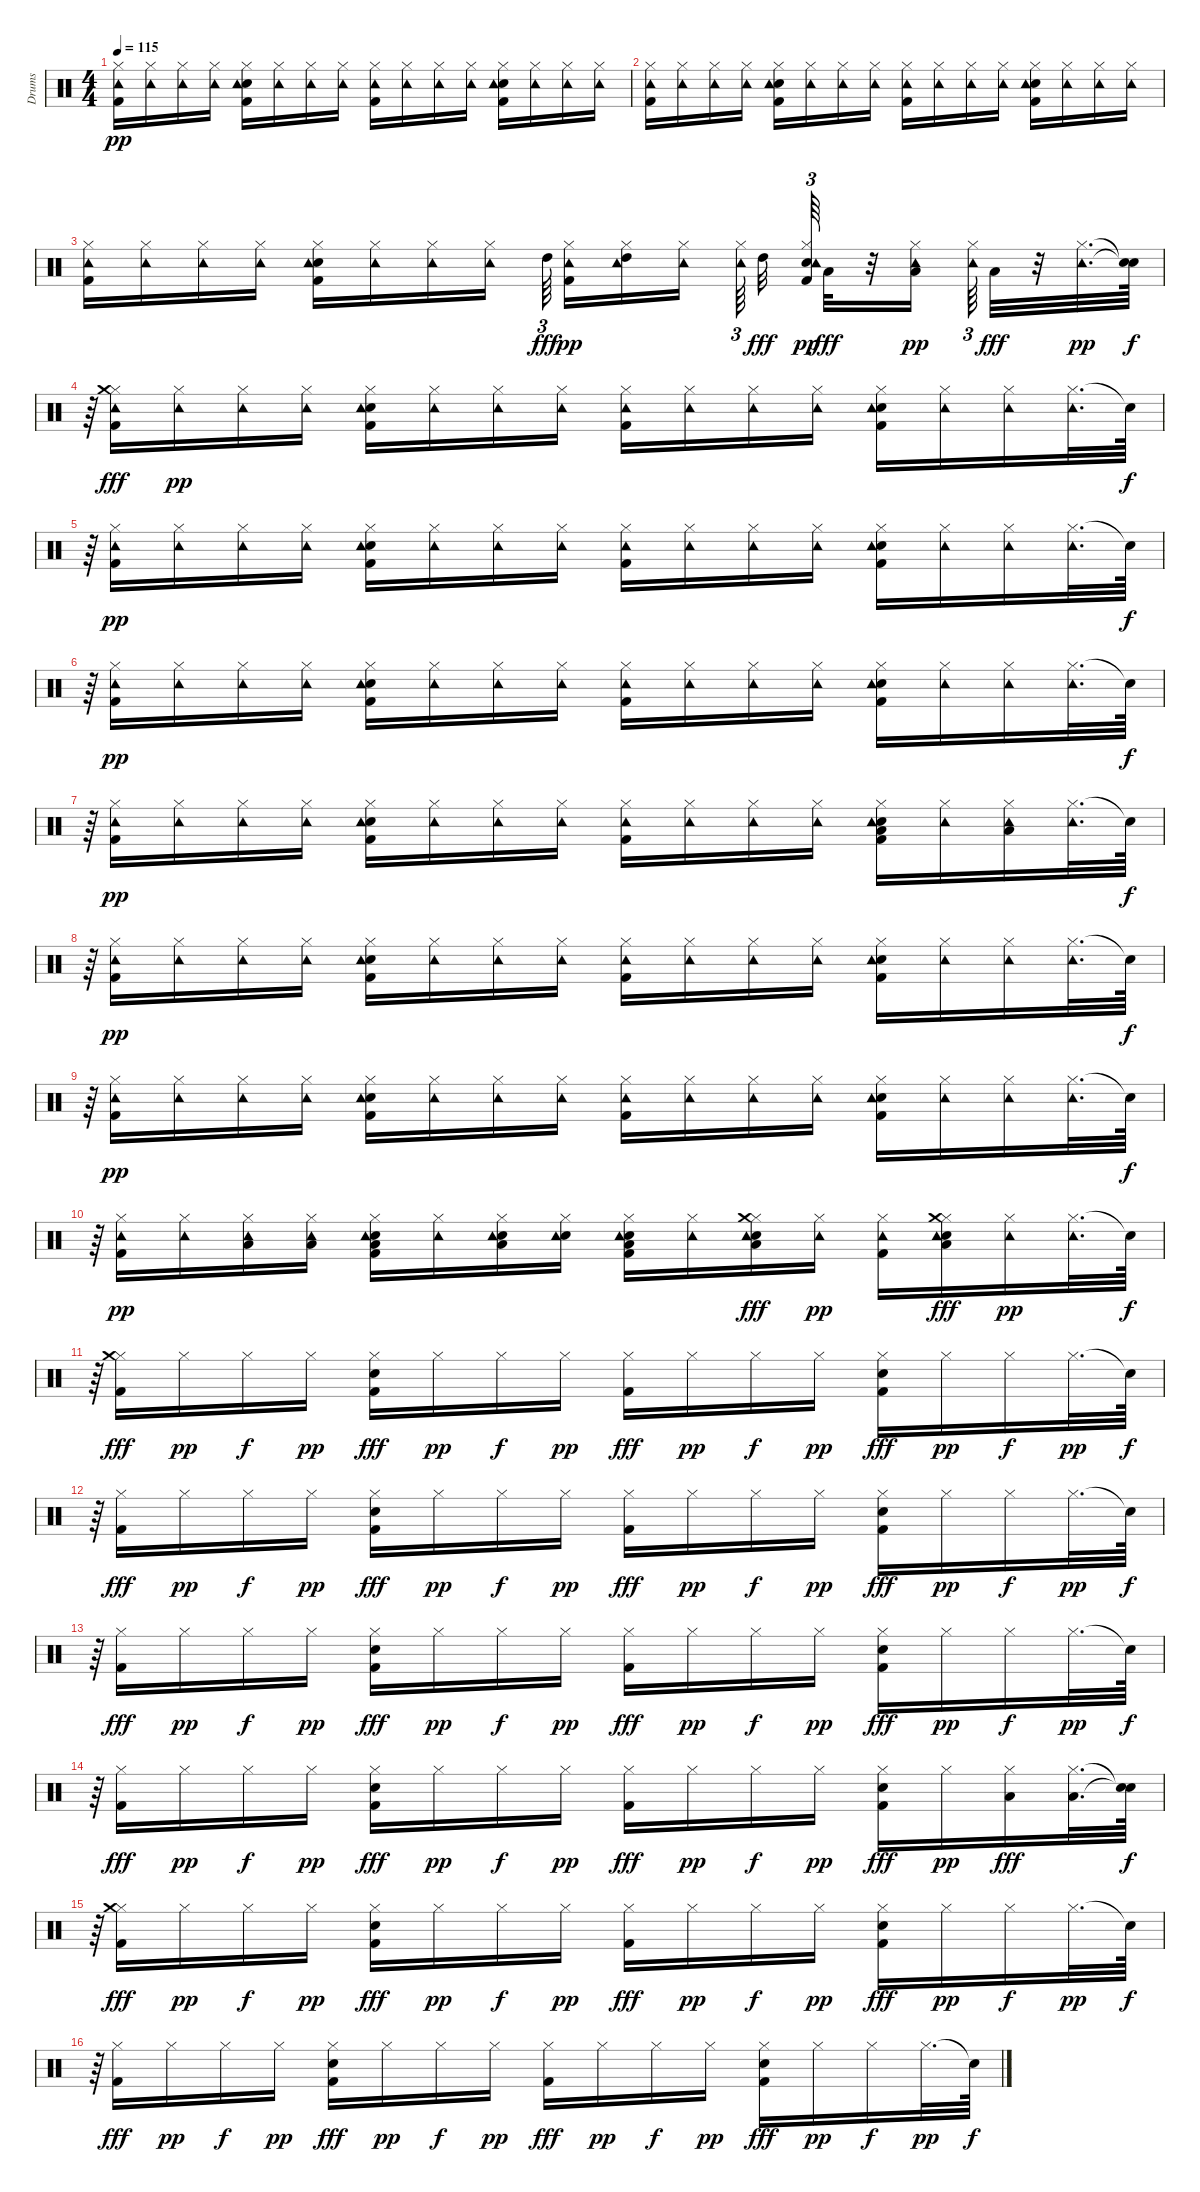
\track ("Drums" "Drums") {instrument percussion}
\staff {score}
\articulation defaults
\ts (4 4)
\tempo 115
\clef neutral
\ks c
("Kick (hit) 2" "Hi-Hat (closed)" "Tambourine (hit)").16{dy pp} ("Hi-Hat (closed)" "Tambourine (hit)").16 ("Hi-Hat (closed)" "Tambourine (hit)").16 ("Hi-Hat (closed)" "Tambourine (hit)").16 ("Kick (hit) 2" "Snare (hit) 2" "Hi-Hat (closed)" "Tambourine (hit)").16 ("Hi-Hat (closed)" "Tambourine (hit)").16 ("Hi-Hat (closed)" "Tambourine (hit)").16 ("Hi-Hat (closed)" "Tambourine (hit)").16 ("Kick (hit) 2" "Hi-Hat (closed)" "Tambourine (hit)").16 ("Hi-Hat (closed)" "Tambourine (hit)").16 ("Hi-Hat (closed)" "Tambourine (hit)").16 ("Hi-Hat (closed)" "Tambourine (hit)").16 ("Kick (hit) 2" "Snare (hit) 2" "Hi-Hat (closed)" "Tambourine (hit)").16 ("Hi-Hat (closed)" "Tambourine (hit)").16 ("Hi-Hat (closed)" "Tambourine (hit)").16 ("Hi-Hat (closed)" "Tambourine (hit)").16 |
("Kick (hit) 2" "Hi-Hat (closed)" "Tambourine (hit)").16 ("Hi-Hat (closed)" "Tambourine (hit)").16 ("Hi-Hat (closed)" "Tambourine (hit)").16 ("Hi-Hat (closed)" "Tambourine (hit)").16 ("Kick (hit) 2" "Snare (hit) 2" "Hi-Hat (closed)" "Tambourine (hit)").16 ("Hi-Hat (closed)" "Tambourine (hit)").16 ("Hi-Hat (closed)" "Tambourine (hit)").16 ("Hi-Hat (closed)" "Tambourine (hit)").16 ("Kick (hit) 2" "Hi-Hat (closed)" "Tambourine (hit)").16 ("Hi-Hat (closed)" "Tambourine (hit)").16 ("Hi-Hat (closed)" "Tambourine (hit)").16 ("Hi-Hat (closed)" "Tambourine (hit)").16 ("Kick (hit) 2" "Snare (hit) 2" "Hi-Hat (closed)" "Tambourine (hit)").16 ("Hi-Hat (closed)" "Tambourine (hit)").16 ("Hi-Hat (closed)" "Tambourine (hit)").16 ("Hi-Hat (closed)" "Tambourine (hit)").16 |
("Kick (hit) 2" "Hi-Hat (closed)" "Tambourine (hit)").16 ("Hi-Hat (closed)" "Tambourine (hit)").16 ("Hi-Hat (closed)" "Tambourine (hit)").16 ("Hi-Hat (closed)" "Tambourine (hit)").16 ("Kick (hit) 2" "Snare (hit) 2" "Hi-Hat (closed)" "Tambourine (hit)").16 ("Hi-Hat (closed)" "Tambourine (hit)").16 ("Hi-Hat (closed)" "Tambourine (hit)").16 ("Hi-Hat (closed)" "Tambourine (hit)").16 "High Tom (hit)".64{tu (3 2) dy fff beam splitsecondary} ("Kick (hit) 2" "Hi-Hat (closed)" "Tambourine (hit)").16{dy pp} ("Hi-Hat (closed)" "High Tom (hit)" "Tambourine (hit)").16 ("Hi-Hat (closed)" "Tambourine (hit)").16{beam splitsecondary} ("Hi-Hat (closed)" "Tambourine (hit)").64{tu (3 2) beam splitsecondary} "High Tom (hit)".32{dy fff} ("Kick (hit) 2" "Snare (hit) 2" "Hi-Hat (closed)" "Tambourine (hit)").64{tu (3 2) dy pp} "Low Tom (hit)".32{dy fff} r.32 ("Hi-Hat (closed)" "Low Tom (hit)" "Tambourine (hit)").16{dy pp beam splitsecondary} ("Hi-Hat (closed)" "Tambourine (hit)").64{tu (3 2)} "Low Floor Tom (hit)".32{dy fff} r.32 ("Hi-Hat (closed)" "Tambourine (hit)").32{d dy pp} ("Snare (hit)"{t} "Snare (hit)"{t}).64{dy f} |
r.64{tu (3 2)} ("Kick (hit) 2" "Hi-Hat (closed)" "Tambourine (hit)" "Crash medium (hit)").16{dy fff} ("Hi-Hat (closed)" "Tambourine (hit)").16{dy pp} ("Hi-Hat (closed)" "Tambourine (hit)").16 ("Hi-Hat (closed)" "Tambourine (hit)").16 ("Kick (hit) 2" "Snare (hit) 2" "Hi-Hat (closed)" "Tambourine (hit)").16 ("Hi-Hat (closed)" "Tambourine (hit)").16 ("Hi-Hat (closed)" "Tambourine (hit)").16 ("Hi-Hat (closed)" "Tambourine (hit)").16 ("Kick (hit) 2" "Hi-Hat (closed)" "Tambourine (hit)").16 ("Hi-Hat (closed)" "Tambourine (hit)").16 ("Hi-Hat (closed)" "Tambourine (hit)").16 ("Hi-Hat (closed)" "Tambourine (hit)").16 ("Kick (hit) 2" "Snare (hit) 2" "Hi-Hat (closed)" "Tambourine (hit)").16 ("Hi-Hat (closed)" "Tambourine (hit)").16 ("Hi-Hat (closed)" "Tambourine (hit)").16 ("Hi-Hat (closed)" "Tambourine (hit)").32{d} "Snare (hit)"{t}.64{dy f} |
r.64{tu (3 2)} ("Kick (hit) 2" "Hi-Hat (closed)" "Tambourine (hit)").16{dy pp} ("Hi-Hat (closed)" "Tambourine (hit)").16 ("Hi-Hat (closed)" "Tambourine (hit)").16 ("Hi-Hat (closed)" "Tambourine (hit)").16 ("Kick (hit) 2" "Snare (hit) 2" "Hi-Hat (closed)" "Tambourine (hit)").16 ("Hi-Hat (closed)" "Tambourine (hit)").16 ("Hi-Hat (closed)" "Tambourine (hit)").16 ("Hi-Hat (closed)" "Tambourine (hit)").16 ("Kick (hit) 2" "Hi-Hat (closed)" "Tambourine (hit)").16 ("Hi-Hat (closed)" "Tambourine (hit)").16 ("Hi-Hat (closed)" "Tambourine (hit)").16 ("Hi-Hat (closed)" "Tambourine (hit)").16 ("Kick (hit) 2" "Snare (hit) 2" "Hi-Hat (closed)" "Tambourine (hit)").16 ("Hi-Hat (closed)" "Tambourine (hit)").16 ("Hi-Hat (closed)" "Tambourine (hit)").16 ("Hi-Hat (closed)" "Tambourine (hit)").32{d} "Snare (hit)"{t}.64{dy f} |
r.64{tu (3 2)} ("Kick (hit) 2" "Hi-Hat (closed)" "Tambourine (hit)").16{dy pp} ("Hi-Hat (closed)" "Tambourine (hit)").16 ("Hi-Hat (closed)" "Tambourine (hit)").16 ("Hi-Hat (closed)" "Tambourine (hit)").16 ("Kick (hit) 2" "Snare (hit) 2" "Hi-Hat (closed)" "Tambourine (hit)").16 ("Hi-Hat (closed)" "Tambourine (hit)").16 ("Hi-Hat (closed)" "Tambourine (hit)").16 ("Hi-Hat (closed)" "Tambourine (hit)").16 ("Kick (hit) 2" "Hi-Hat (closed)" "Tambourine (hit)").16 ("Hi-Hat (closed)" "Tambourine (hit)").16 ("Hi-Hat (closed)" "Tambourine (hit)").16 ("Hi-Hat (closed)" "Tambourine (hit)").16 ("Kick (hit) 2" "Snare (hit) 2" "Hi-Hat (closed)" "Tambourine (hit)").16 ("Hi-Hat (closed)" "Tambourine (hit)").16 ("Hi-Hat (closed)" "Tambourine (hit)").16 ("Hi-Hat (closed)" "Tambourine (hit)").32{d} "Snare (hit)"{t}.64{dy f} |
r.64{tu (3 2)} ("Kick (hit) 2" "Hi-Hat (closed)" "Tambourine (hit)").16{dy pp} ("Hi-Hat (closed)" "Tambourine (hit)").16 ("Hi-Hat (closed)" "Tambourine (hit)").16 ("Hi-Hat (closed)" "Tambourine (hit)").16 ("Kick (hit) 2" "Snare (hit) 2" "Hi-Hat (closed)" "Tambourine (hit)").16 ("Hi-Hat (closed)" "Tambourine (hit)").16 ("Hi-Hat (closed)" "Tambourine (hit)").16 ("Hi-Hat (closed)" "Tambourine (hit)").16 ("Kick (hit) 2" "Hi-Hat (closed)" "Tambourine (hit)").16 ("Hi-Hat (closed)" "Tambourine (hit)").16 ("Hi-Hat (closed)" "Tambourine (hit)").16 ("Hi-Hat (closed)" "Tambourine (hit)").16 ("Kick (hit) 2" "Snare (hit) 2" "Hi-Hat (closed)" "Low Tom (hit)" "Tambourine (hit)").16 ("Hi-Hat (closed)" "Tambourine (hit)").16 ("Low Floor Tom (hit)" "Hi-Hat (closed)" "Tambourine (hit)").16 ("Hi-Hat (closed)" "Tambourine (hit)").32{d} "Snare (hit)"{t}.64{dy f} |
r.64{tu (3 2)} ("Kick (hit) 2" "Hi-Hat (closed)" "Tambourine (hit)").16{dy pp} ("Hi-Hat (closed)" "Tambourine (hit)").16 ("Hi-Hat (closed)" "Tambourine (hit)").16 ("Hi-Hat (closed)" "Tambourine (hit)").16 ("Kick (hit) 2" "Snare (hit) 2" "Hi-Hat (closed)" "Tambourine (hit)").16 ("Hi-Hat (closed)" "Tambourine (hit)").16 ("Hi-Hat (closed)" "Tambourine (hit)").16 ("Hi-Hat (closed)" "Tambourine (hit)").16 ("Kick (hit) 2" "Hi-Hat (closed)" "Tambourine (hit)").16 ("Hi-Hat (closed)" "Tambourine (hit)").16 ("Hi-Hat (closed)" "Tambourine (hit)").16 ("Hi-Hat (closed)" "Tambourine (hit)").16 ("Kick (hit) 2" "Snare (hit) 2" "Hi-Hat (closed)" "Tambourine (hit)").16 ("Hi-Hat (closed)" "Tambourine (hit)").16 ("Hi-Hat (closed)" "Tambourine (hit)").16 ("Hi-Hat (closed)" "Tambourine (hit)").32{d} "Snare (hit)"{t}.64{dy f} |
r.64{tu (3 2)} ("Kick (hit) 2" "Hi-Hat (closed)" "Tambourine (hit)").16{dy pp} ("Hi-Hat (closed)" "Tambourine (hit)").16 ("Hi-Hat (closed)" "Tambourine (hit)").16 ("Hi-Hat (closed)" "Tambourine (hit)").16 ("Kick (hit) 2" "Snare (hit) 2" "Hi-Hat (closed)" "Tambourine (hit)").16 ("Hi-Hat (closed)" "Tambourine (hit)").16 ("Hi-Hat (closed)" "Tambourine (hit)").16 ("Hi-Hat (closed)" "Tambourine (hit)").16 ("Kick (hit) 2" "Hi-Hat (closed)" "Tambourine (hit)").16 ("Hi-Hat (closed)" "Tambourine (hit)").16 ("Hi-Hat (closed)" "Tambourine (hit)").16 ("Hi-Hat (closed)" "Tambourine (hit)").16 ("Kick (hit) 2" "Snare (hit) 2" "Hi-Hat (closed)" "Tambourine (hit)").16 ("Hi-Hat (closed)" "Tambourine (hit)").16 ("Hi-Hat (closed)" "Tambourine (hit)").16 ("Hi-Hat (closed)" "Tambourine (hit)").32{d} "Snare (hit)"{t}.64{dy f} |
r.64{tu (3 2)} ("Kick (hit) 2" "Hi-Hat (closed)" "Tambourine (hit)").16{dy pp} ("Hi-Hat (closed)" "Tambourine (hit)").16 ("Hi-Hat (closed)" "Low Tom (hit)" "Tambourine (hit)").16 ("Hi-Hat (closed)" "Low Tom (hit)" "Tambourine (hit)").16 ("Kick (hit) 2" "Snare (hit) 2" "Hi-Hat (closed)" "Low Tom (hit)" "Tambourine (hit)").16 ("Hi-Hat (closed)" "Tambourine (hit)").16 ("Snare (hit) 2" "Hi-Hat (closed)" "Low Tom (hit)" "Tambourine (hit)").16 ("Snare (hit) 2" "Hi-Hat (closed)" "Tambourine (hit)").16 ("Kick (hit) 2" "Snare (hit) 2" "Low Floor Tom (hit)" "Hi-Hat (closed)" "Tambourine (hit)").16 ("Hi-Hat (closed)" "Tambourine (hit)").16 ("Snare (hit) 2" "Hi-Hat (closed)" "Low Tom (hit)" "Tambourine (hit)" "Crash medium (hit)").16{dy fff} ("Hi-Hat (closed)" "Tambourine (hit)").16{dy pp} ("Kick (hit) 2" "Hi-Hat (closed)" "Tambourine (hit)").16 ("Snare (hit) 2" "Hi-Hat (closed)" "Low Tom (hit)" "Tambourine (hit)" "Crash medium (hit)").16{dy fff} ("Hi-Hat (closed)" "Tambourine (hit)").16{dy pp} ("Hi-Hat (closed)" "Tambourine (hit)").32{d} "Snare (hit)"{t}.64{dy f} |
r.64{tu (3 2)} ("Kick (hit) 2" "Hi-Hat (closed)" "Crash medium (hit)").16{dy fff} "Hi-Hat (closed)".16{dy pp} "Hi-Hat (closed)".16{dy f} "Hi-Hat (closed)".16{dy pp} ("Kick (hit) 2" "Snare (hit) 2" "Hi-Hat (closed)").16{dy fff} "Hi-Hat (closed)".16{dy pp} "Hi-Hat (closed)".16{dy f} "Hi-Hat (closed)".16{dy pp} ("Kick (hit) 2" "Hi-Hat (closed)").16{dy fff} "Hi-Hat (closed)".16{dy pp} "Hi-Hat (closed)".16{dy f} "Hi-Hat (closed)".16{dy pp} ("Kick (hit) 2" "Snare (hit) 2" "Hi-Hat (closed)").16{dy fff} "Hi-Hat (closed)".16{dy pp} "Hi-Hat (closed)".16{dy f} "Hi-Hat (closed)".32{d dy pp} "Snare (hit)"{t}.64{dy f} |
r.64{tu (3 2)} ("Kick (hit) 2" "Hi-Hat (closed)").16{dy fff} "Hi-Hat (closed)".16{dy pp} "Hi-Hat (closed)".16{dy f} "Hi-Hat (closed)".16{dy pp} ("Kick (hit) 2" "Snare (hit) 2" "Hi-Hat (closed)").16{dy fff} "Hi-Hat (closed)".16{dy pp} "Hi-Hat (closed)".16{dy f} "Hi-Hat (closed)".16{dy pp} ("Kick (hit) 2" "Hi-Hat (closed)").16{dy fff} "Hi-Hat (closed)".16{dy pp} "Hi-Hat (closed)".16{dy f} "Hi-Hat (closed)".16{dy pp} ("Kick (hit) 2" "Snare (hit) 2" "Hi-Hat (closed)").16{dy fff} "Hi-Hat (closed)".16{dy pp} "Hi-Hat (closed)".16{dy f} "Hi-Hat (closed)".32{d dy pp} "Snare (hit)"{t}.64{dy f} |
r.64{tu (3 2)} ("Kick (hit) 2" "Hi-Hat (closed)").16{dy fff} "Hi-Hat (closed)".16{dy pp} "Hi-Hat (closed)".16{dy f} "Hi-Hat (closed)".16{dy pp} ("Kick (hit) 2" "Snare (hit) 2" "Hi-Hat (closed)").16{dy fff} "Hi-Hat (closed)".16{dy pp} "Hi-Hat (closed)".16{dy f} "Hi-Hat (closed)".16{dy pp} ("Kick (hit) 2" "Hi-Hat (closed)").16{dy fff} "Hi-Hat (closed)".16{dy pp} "Hi-Hat (closed)".16{dy f} "Hi-Hat (closed)".16{dy pp} ("Kick (hit) 2" "Snare (hit) 2" "Hi-Hat (closed)").16{dy fff} "Hi-Hat (closed)".16{dy pp} "Hi-Hat (closed)".16{dy f} "Hi-Hat (closed)".32{d dy pp} "Snare (hit)"{t}.64{dy f} |
r.64{tu (3 2)} ("Kick (hit) 2" "Hi-Hat (closed)").16{dy fff} "Hi-Hat (closed)".16{dy pp} "Hi-Hat (closed)".16{dy f} "Hi-Hat (closed)".16{dy pp} ("Kick (hit) 2" "Snare (hit) 2" "Hi-Hat (closed)").16{dy fff} "Hi-Hat (closed)".16{dy pp} "Hi-Hat (closed)".16{dy f} "Hi-Hat (closed)".16{dy pp} ("Kick (hit) 2" "Hi-Hat (closed)").16{dy fff} "Hi-Hat (closed)".16{dy pp} "Hi-Hat (closed)".16{dy f} "Hi-Hat (closed)".16{dy pp} ("Kick (hit) 2" "Snare (hit) 2" "Hi-Hat (closed)").16{dy fff} "Hi-Hat (closed)".16{dy pp} ("Hi-Hat (closed)" "Low Tom (hit)").16{dy fff} ("Hi-Hat (closed)" "Low Tom (hit)").32{d} ("Snare (hit)"{t} "Snare (hit)"{t}).64{dy f} |
r.64{tu (3 2)} ("Kick (hit) 2" "Hi-Hat (closed)" "Crash medium (hit)").16{dy fff} "Hi-Hat (closed)".16{dy pp} "Hi-Hat (closed)".16{dy f} "Hi-Hat (closed)".16{dy pp} ("Kick (hit) 2" "Snare (hit) 2" "Hi-Hat (closed)").16{dy fff} "Hi-Hat (closed)".16{dy pp} "Hi-Hat (closed)".16{dy f} "Hi-Hat (closed)".16{dy pp} ("Kick (hit) 2" "Hi-Hat (closed)").16{dy fff} "Hi-Hat (closed)".16{dy pp} "Hi-Hat (closed)".16{dy f} "Hi-Hat (closed)".16{dy pp} ("Kick (hit) 2" "Snare (hit) 2" "Hi-Hat (closed)").16{dy fff} "Hi-Hat (closed)".16{dy pp} "Hi-Hat (closed)".16{dy f} "Hi-Hat (closed)".32{d dy pp} "Snare (hit)"{t}.64{dy f} |
r.64{tu (3 2)} ("Kick (hit) 2" "Hi-Hat (closed)").16{dy fff} "Hi-Hat (closed)".16{dy pp} "Hi-Hat (closed)".16{dy f} "Hi-Hat (closed)".16{dy pp} ("Kick (hit) 2" "Snare (hit) 2" "Hi-Hat (closed)").16{dy fff} "Hi-Hat (closed)".16{dy pp} "Hi-Hat (closed)".16{dy f} "Hi-Hat (closed)".16{dy pp} ("Kick (hit) 2" "Hi-Hat (closed)").16{dy fff} "Hi-Hat (closed)".16{dy pp} "Hi-Hat (closed)".16{dy f} "Hi-Hat (closed)".16{dy pp} ("Kick (hit) 2" "Snare (hit) 2" "Hi-Hat (closed)").16{dy fff} "Hi-Hat (closed)".16{dy pp} "Hi-Hat (closed)".16{dy f} "Hi-Hat (closed)".32{d dy pp} "Snare (hit)"{t}.64{dy f}
